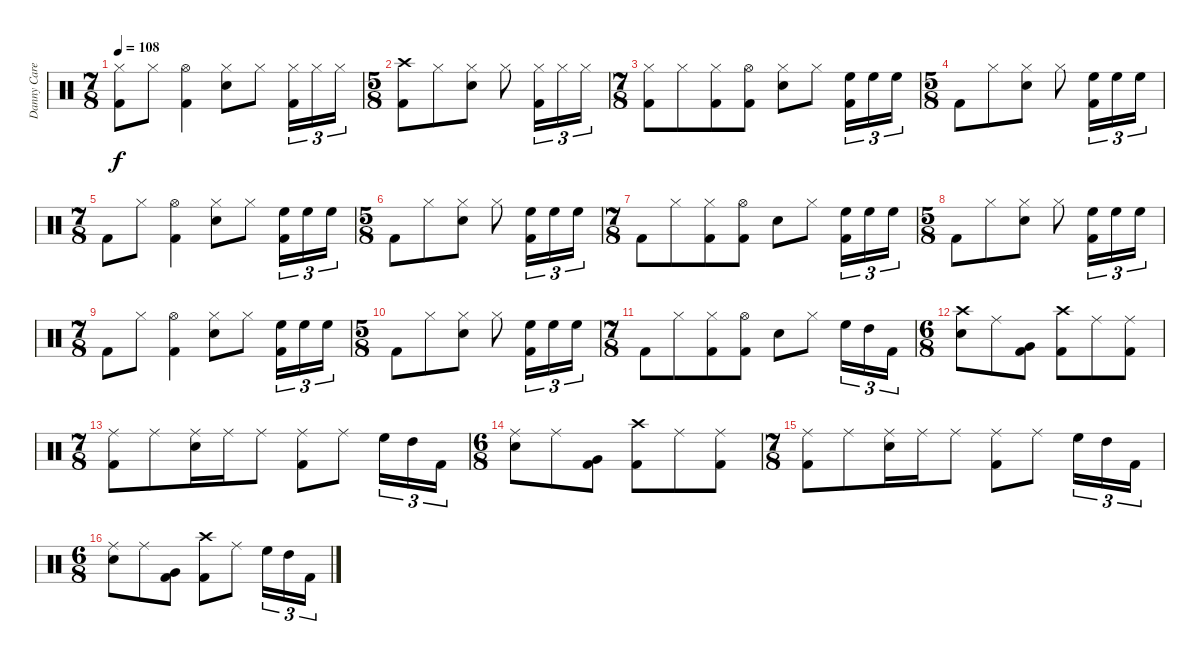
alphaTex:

\track ("Danny Carey" "Danny Care") {instrument percussion}
\staff {score}
\articulation defaults
\ts (7 8)
\tempo 108
\clef neutral
\ks c
("Hi-Hat (closed)" "Kick (hit) 2").8{dy f} "Hi-Hat (closed)".8 ("Hi-Hat (open)" "Kick (hit) 2").4 ("Hi-Hat (closed)" "Electric Snare (hit)").8 "Hi-Hat (closed)".8 ("Hi-Hat (closed)" "Kick (hit) 2").16{tu (3 2)} "Hi-Hat (closed)".16{tu (3 2)} "Hi-Hat (closed)".16{tu (3 2)} |
\ts (5 8)
("Crash high (hit)" "Kick (hit) 2").8 "Hi-Hat (closed)".8 ("Hi-Hat (closed)" "Electric Snare (hit)").8 "Hi-Hat (closed)".8 ("Hi-Hat (closed)" "Kick (hit) 2").16{tu (3 2)} "Hi-Hat (closed)".16{tu (3 2)} "Hi-Hat (closed)".16{tu (3 2)} |
\ts (7 8)
("Hi-Hat (closed)" "Kick (hit) 2").8 "Hi-Hat (closed)".8 ("Hi-Hat (closed)" "Kick (hit) 2").8 ("Hi-Hat (open)" "Kick (hit) 2").8 ("Hi-Hat (closed)" "Electric Snare (hit)").8 "Hi-Hat (closed)".8 ("High Floor Tom (hit)" "Kick (hit) 2").16{tu (3 2)} "High Floor Tom (hit)".16{tu (3 2)} "High Floor Tom (hit)".16{tu (3 2)} |
\ts (5 8)
"Kick (hit) 2".8 "Hi-Hat (closed)".8 ("Hi-Hat (closed)" "Electric Snare (hit)").8 "Hi-Hat (closed)".8 ("High Floor Tom (hit)" "Kick (hit) 2").16{tu (3 2)} "High Floor Tom (hit)".16{tu (3 2)} "High Floor Tom (hit)".16{tu (3 2)} |
\ts (7 8)
"Kick (hit) 2".8 "Hi-Hat (closed)".8 ("Hi-Hat (open)" "Kick (hit) 2").4 ("Hi-Hat (closed)" "Electric Snare (hit)").8 "Hi-Hat (closed)".8 ("High Floor Tom (hit)" "Kick (hit) 2").16{tu (3 2)} "High Floor Tom (hit)".16{tu (3 2)} "High Floor Tom (hit)".16{tu (3 2)} |
\ts (5 8)
"Kick (hit) 2".8 "Hi-Hat (closed)".8 ("Hi-Hat (closed)" "Electric Snare (hit)").8 "Hi-Hat (closed)".8 ("High Floor Tom (hit)" "Kick (hit) 2").16{tu (3 2)} "High Floor Tom (hit)".16{tu (3 2)} "High Floor Tom (hit)".16{tu (3 2)} |
\ts (7 8)
"Kick (hit) 2".8 "Hi-Hat (closed)".8 ("Hi-Hat (closed)" "Kick (hit) 2").8 ("Hi-Hat (open)" "Kick (hit) 2").8 "Electric Snare (hit)".8 "Hi-Hat (closed)".8 ("High Floor Tom (hit)" "Kick (hit) 2").16{tu (3 2)} "High Floor Tom (hit)".16{tu (3 2)} "High Floor Tom (hit)".16{tu (3 2)} |
\ts (5 8)
"Kick (hit) 2".8 "Hi-Hat (closed)".8 ("Hi-Hat (closed)" "Electric Snare (hit)").8 "Hi-Hat (closed)".8 ("High Floor Tom (hit)" "Kick (hit) 2").16{tu (3 2)} "High Floor Tom (hit)".16{tu (3 2)} "High Floor Tom (hit)".16{tu (3 2)} |
\ts (7 8)
"Kick (hit) 2".8 "Hi-Hat (closed)".8 ("Hi-Hat (open)" "Kick (hit) 2").4 ("Hi-Hat (closed)" "Electric Snare (hit)").8 "Hi-Hat (closed)".8 ("High Floor Tom (hit)" "Kick (hit) 2").16{tu (3 2)} "High Floor Tom (hit)".16{tu (3 2)} "High Floor Tom (hit)".16{tu (3 2)} |
\ts (5 8)
"Kick (hit) 2".8 "Hi-Hat (closed)".8 ("Hi-Hat (closed)" "Electric Snare (hit)").8 "Hi-Hat (closed)".8 ("High Floor Tom (hit)" "Kick (hit) 2").16{tu (3 2)} "High Floor Tom (hit)".16{tu (3 2)} "High Floor Tom (hit)".16{tu (3 2)} |
\ts (7 8)
"Kick (hit) 2".8 "Hi-Hat (closed)".8 ("Hi-Hat (closed)" "Kick (hit) 2").8 ("Hi-Hat (open)" "Kick (hit) 2").8 "Electric Snare (hit)".8 "Hi-Hat (closed)".8 "High Floor Tom (hit)".16{tu (3 2)} "High Tom (hit)".16{tu (3 2)} "Kick (hit) 2".16{tu (3 2)} |
\ts (6 8)
("Crash high (hit)" "Electric Snare (hit)").8 "Ride (middle)".8 ("Very Low Tom (hit)" "Kick (hit) 2").8 ("Crash high (hit)" "Kick (hit) 2").8 "Ride (middle)".8 ("Ride (middle)" "Kick (hit) 2").8 |
\ts (7 8)
("Ride (middle)" "Kick (hit) 2").8 "Ride (middle)".8 ("Ride (middle)" "Electric Snare (hit)").16 "Ride (middle)".16 "Ride (middle)".8 ("Ride (middle)" "Kick (hit) 2").8 "Ride (middle)".8 "High Floor Tom (hit)".16{tu (3 2)} "High Tom (hit)".16{tu (3 2)} "Kick (hit) 2".16{tu (3 2)} |
\ts (6 8)
("Ride (middle)" "Electric Snare (hit)").8 "Ride (middle)".8 ("Very Low Tom (hit)" "Kick (hit) 2").8 ("Crash high (hit)" "Kick (hit) 2").8 "Ride (middle)".8 ("Ride (middle)" "Kick (hit) 2").8 |
\ts (7 8)
("Ride (middle)" "Kick (hit) 2").8 "Ride (middle)".8 ("Ride (middle)" "Electric Snare (hit)").16 "Ride (middle)".16 "Ride (middle)".8 ("Ride (middle)" "Kick (hit) 2").8 "Ride (middle)".8 "High Floor Tom (hit)".16{tu (3 2)} "High Tom (hit)".16{tu (3 2)} "Kick (hit) 2".16{tu (3 2)} |
\ts (6 8)
("Ride (middle)" "Electric Snare (hit)").8 "Ride (middle)".8 ("Very Low Tom (hit)" "Kick (hit) 2").8 ("Crash high (hit)" "Kick (hit) 2").8 "Ride (middle)".8 "High Floor Tom (hit)".16{tu (3 2)} "High Tom (hit)".16{tu (3 2)} "Kick (hit) 2".16{tu (3 2)}
